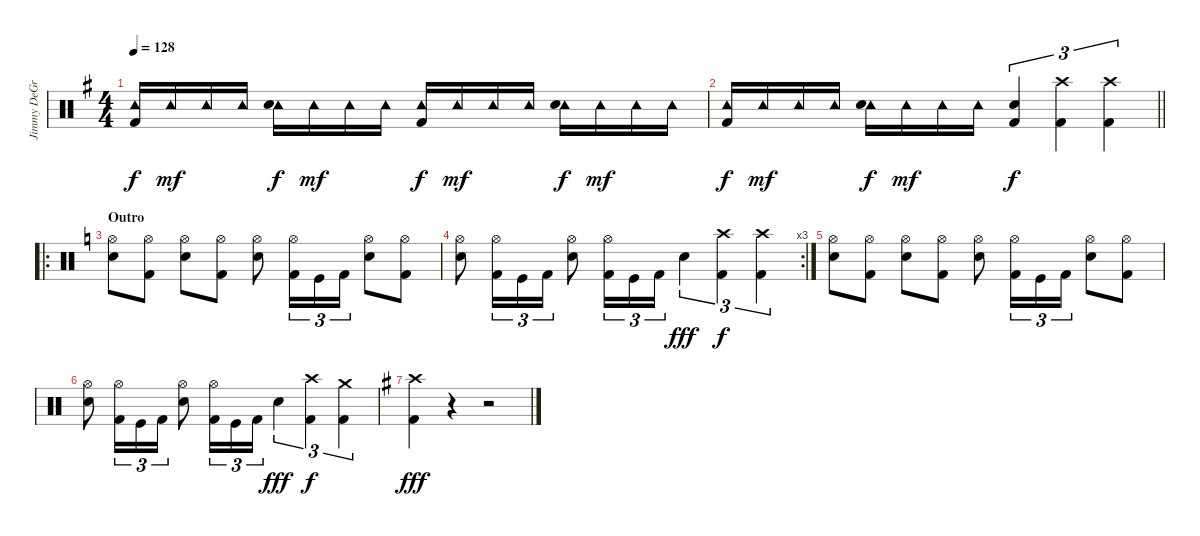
\track ("Jimmy DeGrasso" "Jimmy DeGr") {instrument percussion}
\staff {score}
\articulation defaults
\ts (4 4)
\tempo 128
\clef neutral
\ks g
("Tambourine (hit)" "Kick (hit) 2").16{dy f} "Tambourine (hit)".16{dy mf} "Tambourine (hit)".16 "Tambourine (hit)".16 ("Tambourine (hit)" "Snare (hit) 2").16{dy f} "Tambourine (hit)".16{dy mf} "Tambourine (hit)".16 "Tambourine (hit)".16 ("Tambourine (hit)" "Kick (hit) 2").16{dy f} "Tambourine (hit)".16{dy mf} "Tambourine (hit)".16 "Tambourine (hit)".16 ("Tambourine (hit)" "Snare (hit) 2").16{dy f} "Tambourine (hit)".16{dy mf} "Tambourine (hit)".16 "Tambourine (hit)".16 |
\barLineRight lightlight
("Tambourine (hit)" "Kick (hit) 2").16{dy f} "Tambourine (hit)".16{dy mf} "Tambourine (hit)".16 "Tambourine (hit)".16 ("Tambourine (hit)" "Snare (hit) 2").16{dy f} "Tambourine (hit)".16{dy mf} "Tambourine (hit)".16 "Tambourine (hit)".16 ("Snare (hit) 2" "Kick (hit) 2").4{tu (3 2) dy f} ("Crash high (hit)" "Kick (hit) 2").4{tu (3 2)} ("Crash high (hit)" "Kick (hit) 2").4{tu (3 2)} |
\ro
\section ("" "Outro")
\ks c
("Hi-Hat (open)" "Snare (hit) 2").8 ("Hi-Hat (open)" "Kick (hit) 2").8 ("Hi-Hat (open)" "Snare (hit) 2").8 ("Hi-Hat (open)" "Kick (hit) 2").8 ("Hi-Hat (open)" "Snare (hit) 2").8 ("Hi-Hat (open)" "Kick (hit) 2").16{tu (3 2)} "Kick (hit)".16{tu (3 2)} "Kick (hit) 2".16{tu (3 2)} ("Hi-Hat (open)" "Snare (hit) 2").8 ("Hi-Hat (open)" "Kick (hit) 2").8 |
\rc 3
("Hi-Hat (open)" "Snare (hit) 2").8 ("Hi-Hat (open)" "Kick (hit) 2").16{tu (3 2)} "Kick (hit)".16{tu (3 2)} "Kick (hit) 2".16{tu (3 2)} ("Hi-Hat (open)" "Snare (hit) 2").8 ("Hi-Hat (open)" "Kick (hit) 2").16{tu (3 2)} "Kick (hit)".16{tu (3 2)} "Kick (hit) 2".16{tu (3 2)} "Snare (hit) 2".4{tu (3 2) dy fff} ("Crash high (hit)" "Kick (hit) 2").4{tu (3 2) dy f} ("Crash high (hit)" "Kick (hit) 2").4{tu (3 2)} |
("Hi-Hat (open)" "Snare (hit) 2").8 ("Hi-Hat (open)" "Kick (hit) 2").8 ("Hi-Hat (open)" "Snare (hit) 2").8 ("Hi-Hat (open)" "Kick (hit) 2").8 ("Hi-Hat (open)" "Snare (hit) 2").8 ("Hi-Hat (open)" "Kick (hit) 2").16{tu (3 2)} "Kick (hit)".16{tu (3 2)} "Kick (hit) 2".16{tu (3 2)} ("Hi-Hat (open)" "Snare (hit) 2").8 ("Hi-Hat (open)" "Kick (hit) 2").8 |
("Hi-Hat (open)" "Snare (hit) 2").8 ("Hi-Hat (open)" "Kick (hit) 2").16{tu (3 2)} "Kick (hit)".16{tu (3 2)} "Kick (hit) 2".16{tu (3 2)} ("Hi-Hat (open)" "Snare (hit) 2").8 ("Hi-Hat (open)" "Kick (hit) 2").16{tu (3 2)} "Kick (hit)".16{tu (3 2)} "Kick (hit) 2".16{tu (3 2)} "Snare (hit) 2".4{tu (3 2) dy fff} ("Crash high (hit)" "Kick (hit) 2").4{tu (3 2) dy f} ("Crash medium (hit)" "Kick (hit) 2").4{tu (3 2)} |
\ks g
("Crash high (hit)" "Kick (hit) 2").4{dy fff} r.4 r.2
